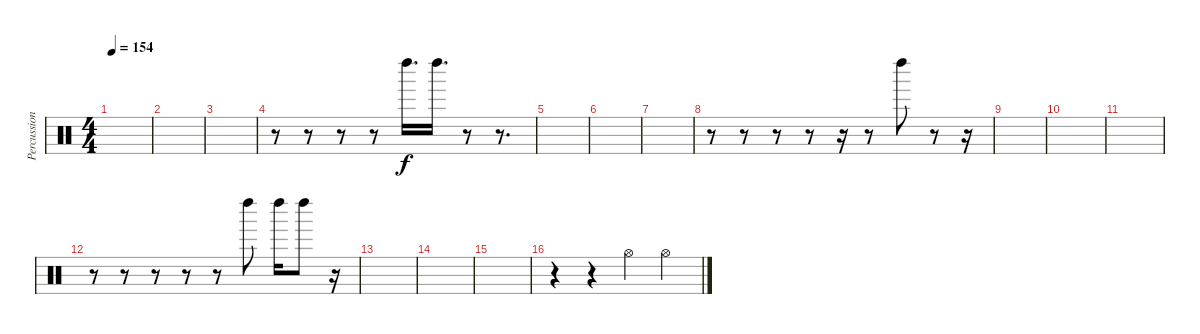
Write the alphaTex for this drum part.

\track ("Percussion" "Percussion") {instrument percussion}
\staff {score}
\articulation defaults
\ts (4 4)
\tempo 154
\clef neutral
\ks c
|
|
|
r.8 r.8 r.8 r.8 "Left Maraca (hit)".16{d} "Left Maraca (hit)".16{d} r.8 r.8{d} |
|
|
|
r.8 r.8 r.8 r.8 r.16 r.8 "Left Maraca (hit)".8 r.8 r.16 |
|
|
|
r.8 r.8 r.8 r.8 r.8 "Left Maraca (hit)".8 "Left Maraca (hit)".16 "Left Maraca (hit)".8 r.16 |
|
|
|
r.4 r.4 "Hi-Hat (open)".4 "Hi-Hat (open)".4
